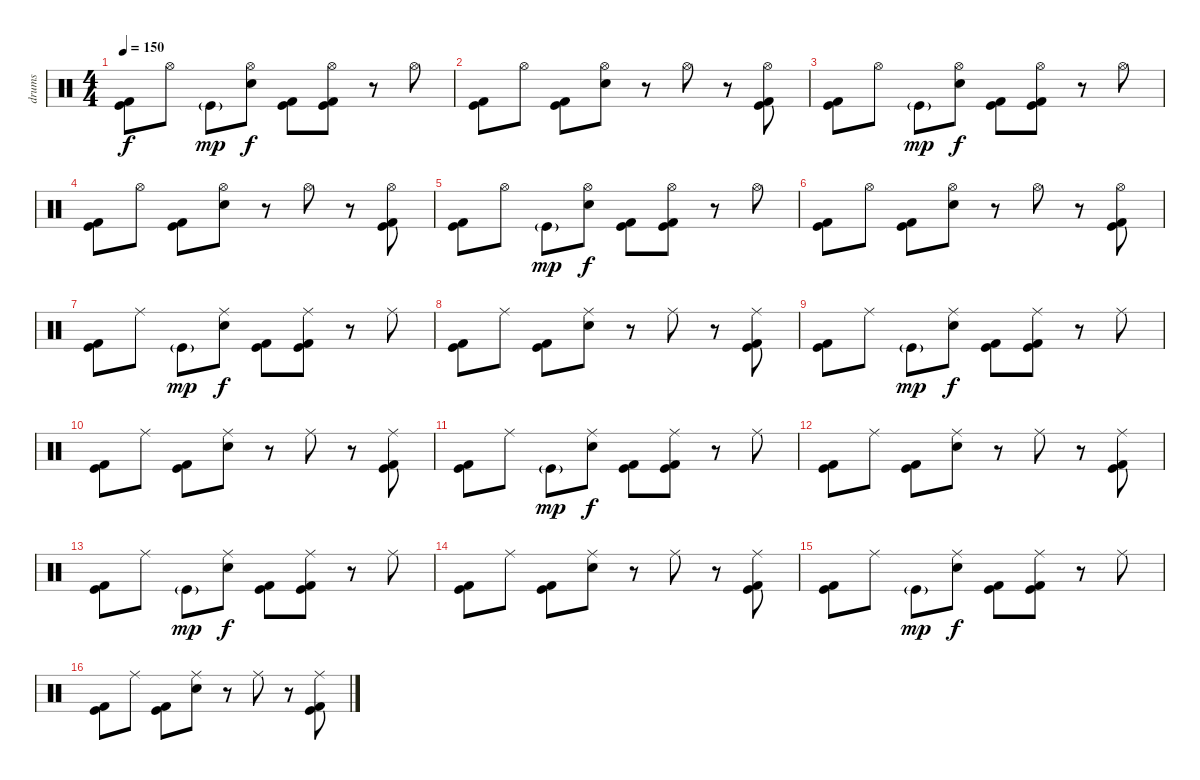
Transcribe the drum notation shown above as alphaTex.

\track ("drums" "drums") {instrument percussion}
\staff {score}
\articulation defaults
\ts (4 4)
\tempo 150
\clef neutral
\ks c
("Kick (hit)" "Kick (hit) 2").8{dy f} "Hi-Hat (open)".8 "Kick (hit)"{g}.8{dy mp} ("Electric Snare (hit)" "Hi-Hat (open)").8{dy f} ("Kick (hit)" "Kick (hit) 2").8 ("Kick (hit)" "Kick (hit) 2" "Hi-Hat (open)").8 r.8 "Hi-Hat (open)".8 |
("Kick (hit)" "Kick (hit) 2").8 "Hi-Hat (open)".8 ("Kick (hit)" "Kick (hit) 2").8 ("Electric Snare (hit)" "Hi-Hat (open)").8 r.8 "Hi-Hat (open)".8 r.8 ("Kick (hit)" "Kick (hit) 2" "Hi-Hat (open)").8 |
("Kick (hit)" "Kick (hit) 2").8 "Hi-Hat (open)".8 "Kick (hit)"{g}.8{dy mp} ("Electric Snare (hit)" "Hi-Hat (open)").8{dy f} ("Kick (hit)" "Kick (hit) 2").8 ("Kick (hit)" "Kick (hit) 2" "Hi-Hat (open)").8 r.8 "Hi-Hat (open)".8 |
("Kick (hit)" "Kick (hit) 2").8 "Hi-Hat (open)".8 ("Kick (hit)" "Kick (hit) 2").8 ("Electric Snare (hit)" "Hi-Hat (open)").8 r.8 "Hi-Hat (open)".8 r.8 ("Kick (hit)" "Kick (hit) 2" "Hi-Hat (open)").8 |
("Kick (hit)" "Kick (hit) 2").8 "Hi-Hat (open)".8 "Kick (hit)"{g}.8{dy mp} ("Electric Snare (hit)" "Hi-Hat (open)").8{dy f} ("Kick (hit)" "Kick (hit) 2").8 ("Kick (hit)" "Kick (hit) 2" "Hi-Hat (open)").8 r.8 "Hi-Hat (open)".8 |
("Kick (hit)" "Kick (hit) 2").8 "Hi-Hat (open)".8 ("Kick (hit)" "Kick (hit) 2").8 ("Electric Snare (hit)" "Hi-Hat (open)").8 r.8 "Hi-Hat (open)".8 r.8 ("Kick (hit)" "Kick (hit) 2" "Hi-Hat (open)").8 |
("Kick (hit)" "Kick (hit) 2").8 "Ride (middle)".8 "Kick (hit)"{g}.8{dy mp} ("Electric Snare (hit)" "Ride (middle)").8{dy f} ("Kick (hit)" "Kick (hit) 2").8 ("Kick (hit)" "Kick (hit) 2" "Ride (middle)").8 r.8 "Ride (middle)".8 |
("Kick (hit)" "Kick (hit) 2").8 "Ride (middle)".8 ("Kick (hit)" "Kick (hit) 2").8 ("Electric Snare (hit)" "Ride (middle)").8 r.8 "Ride (middle)".8 r.8 ("Kick (hit)" "Kick (hit) 2" "Ride (middle)").8 |
("Kick (hit)" "Kick (hit) 2").8 "Ride (middle)".8 "Kick (hit)"{g}.8{dy mp} ("Electric Snare (hit)" "Ride (middle)").8{dy f} ("Kick (hit)" "Kick (hit) 2").8 ("Kick (hit)" "Kick (hit) 2" "Ride (middle)").8 r.8 "Ride (middle)".8 |
("Kick (hit)" "Kick (hit) 2").8 "Ride (middle)".8 ("Kick (hit)" "Kick (hit) 2").8 ("Electric Snare (hit)" "Ride (middle)").8 r.8 "Ride (middle)".8 r.8 ("Kick (hit)" "Kick (hit) 2" "Ride (middle)").8 |
("Kick (hit)" "Kick (hit) 2").8 "Ride (middle)".8 "Kick (hit)"{g}.8{dy mp} ("Electric Snare (hit)" "Ride (middle)").8{dy f} ("Kick (hit)" "Kick (hit) 2").8 ("Kick (hit)" "Kick (hit) 2" "Ride (middle)").8 r.8 "Ride (middle)".8 |
("Kick (hit)" "Kick (hit) 2").8 "Ride (middle)".8 ("Kick (hit)" "Kick (hit) 2").8 ("Electric Snare (hit)" "Ride (middle)").8 r.8 "Ride (middle)".8 r.8 ("Kick (hit)" "Kick (hit) 2" "Ride (middle)").8 |
("Kick (hit)" "Kick (hit) 2").8 "Ride (middle)".8 "Kick (hit)"{g}.8{dy mp} ("Electric Snare (hit)" "Ride (middle)").8{dy f} ("Kick (hit)" "Kick (hit) 2").8 ("Kick (hit)" "Kick (hit) 2" "Ride (middle)").8 r.8 "Ride (middle)".8 |
("Kick (hit)" "Kick (hit) 2").8 "Ride (middle)".8 ("Kick (hit)" "Kick (hit) 2").8 ("Electric Snare (hit)" "Ride (middle)").8 r.8 "Ride (middle)".8 r.8 ("Kick (hit)" "Kick (hit) 2" "Ride (middle)").8 |
("Kick (hit)" "Kick (hit) 2").8 "Ride (middle)".8 "Kick (hit)"{g}.8{dy mp} ("Electric Snare (hit)" "Ride (middle)").8{dy f} ("Kick (hit)" "Kick (hit) 2").8 ("Kick (hit)" "Kick (hit) 2" "Ride (middle)").8 r.8 "Ride (middle)".8 |
("Kick (hit)" "Kick (hit) 2").8 "Ride (middle)".8 ("Kick (hit)" "Kick (hit) 2").8 ("Electric Snare (hit)" "Ride (middle)").8 r.8 "Ride (middle)".8 r.8 ("Kick (hit)" "Kick (hit) 2" "Ride (middle)").8
